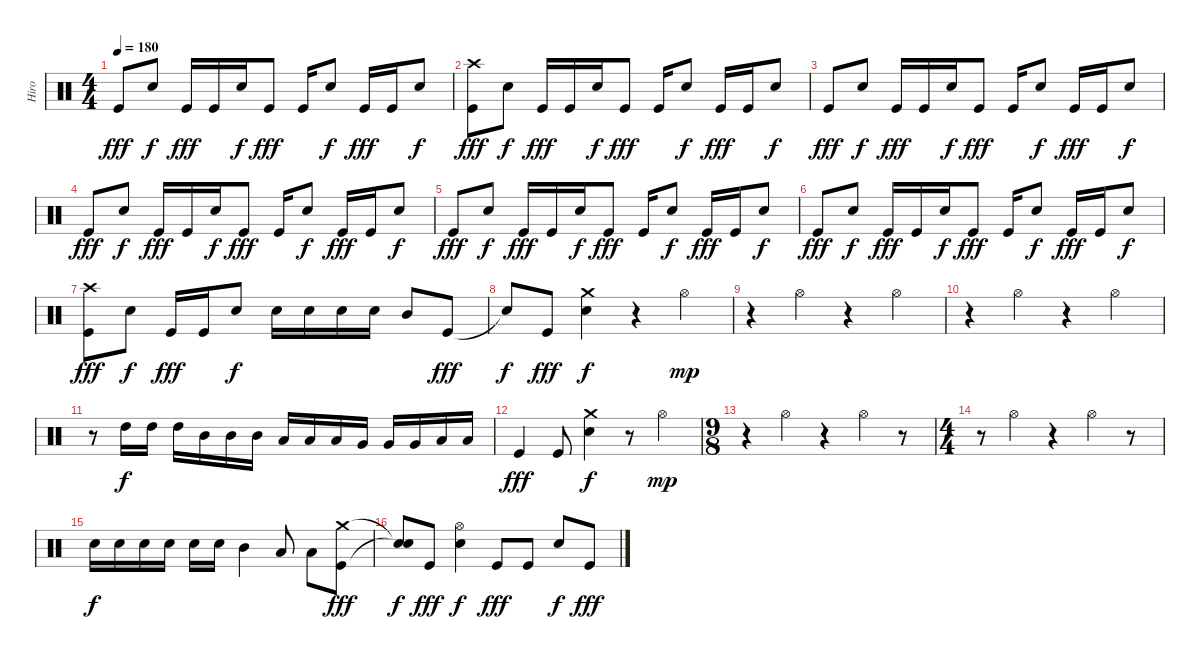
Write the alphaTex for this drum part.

\track ("Hiro" "Hiro") {instrument percussion}
\staff {score}
\articulation defaults
\ts (4 4)
\tempo 180
\clef neutral
\ks c "Kick (hit)".8{dy fff} "Electric Snare (hit)".8{dy f} "Kick (hit)".16{dy fff} "Kick (hit)".16 "Electric Snare (hit)".16{dy f} "Kick (hit)".8{dy fff} "Kick (hit)".16 "Electric Snare (hit)".8{dy f} "Kick (hit)".16{dy fff} "Kick (hit)".16 "Electric Snare (hit)".8{dy f}
|
("Crash high (hit)" "Kick (hit)").8{dy fff} "Electric Snare (hit)".8{dy f} "Kick (hit)".16{dy fff} "Kick (hit)".16 "Electric Snare (hit)".16{dy f} "Kick (hit)".8{dy fff} "Kick (hit)".16 "Electric Snare (hit)".8{dy f} "Kick (hit)".16{dy fff} "Kick (hit)".16 "Electric Snare (hit)".8{dy f} |
"Kick (hit)".8{dy fff} "Electric Snare (hit)".8{dy f} "Kick (hit)".16{dy fff} "Kick (hit)".16 "Electric Snare (hit)".16{dy f} "Kick (hit)".8{dy fff} "Kick (hit)".16 "Electric Snare (hit)".8{dy f} "Kick (hit)".16{dy fff} "Kick (hit)".16 "Electric Snare (hit)".8{dy f} |
"Kick (hit)".8{dy fff} "Electric Snare (hit)".8{dy f} "Kick (hit)".16{dy fff} "Kick (hit)".16 "Electric Snare (hit)".16{dy f} "Kick (hit)".8{dy fff} "Kick (hit)".16 "Electric Snare (hit)".8{dy f} "Kick (hit)".16{dy fff} "Kick (hit)".16 "Electric Snare (hit)".8{dy f} |
"Kick (hit)".8{dy fff} "Electric Snare (hit)".8{dy f} "Kick (hit)".16{dy fff} "Kick (hit)".16 "Electric Snare (hit)".16{dy f} "Kick (hit)".8{dy fff} "Kick (hit)".16 "Electric Snare (hit)".8{dy f} "Kick (hit)".16{dy fff} "Kick (hit)".16 "Electric Snare (hit)".8{dy f} |
"Kick (hit)".8{dy fff} "Electric Snare (hit)".8{dy f} "Kick (hit)".16{dy fff} "Kick (hit)".16 "Electric Snare (hit)".16{dy f} "Kick (hit)".8{dy fff} "Kick (hit)".16 "Electric Snare (hit)".8{dy f} "Kick (hit)".16{dy fff} "Kick (hit)".16 "Electric Snare (hit)".8{dy f} |
("Crash high (hit)" "Kick (hit)").8{dy fff} "Electric Snare (hit)".8{dy f} "Kick (hit)".16{dy fff} "Kick (hit)".16 "Electric Snare (hit)".8{dy f} "Electric Snare (hit)".16 "Electric Snare (hit)".16 "Electric Snare (hit)".16 "Electric Snare (hit)".16 "Mid Tom (hit)".8 "Kick (hit)".8{dy fff} |
"Snare (hit)"{t}.8{dy f} "Kick (hit)".8{dy fff} ("Electric Snare (hit)" "Crash medium (hit)").4{dy f} r.4 "Hi-Hat (open)".4{dy mp} |
r.4 "Hi-Hat (open)".4 r.4 "Hi-Hat (open)".4 |
r.4 "Hi-Hat (open)".4 r.4 "Hi-Hat (open)".4 |
r.8 "High Tom (hit)".16{dy f} "High Tom (hit)".16 "High Tom (hit)".16 "Mid Tom (hit)".16 "Mid Tom (hit)".16 "Mid Tom (hit)".16 "Low Tom (hit)".16 "Low Tom (hit)".16 "Low Tom (hit)".16 "Very Low Tom (hit)".16 "Very Low Tom (hit)".16 "Very Low Tom (hit)".16 "Low Floor Tom (hit)".16 "Low Floor Tom (hit)".16 |
"Kick (hit)".4{dy fff} "Kick (hit)".8 ("Electric Snare (hit)" "Crash medium (hit)").4{dy f} r.8 "Hi-Hat (open)".4{dy mp} |
\ts (9 8)
r.4 "Hi-Hat (open)".4 r.4 "Hi-Hat (open)".4 r.8 |
\ts (4 4)
r.8 "Hi-Hat (open)".4 r.4 "Hi-Hat (open)".4 r.8 |
"Electric Snare (hit)".16{dy f} "Electric Snare (hit)".16 "Electric Snare (hit)".16 "Electric Snare (hit)".16 "Electric Snare (hit)".16 "Electric Snare (hit)".16 "Mid Tom (hit)".4 "Low Tom (hit)".8 "Low Floor Tom (hit)".8 ("Crash medium (hit)" "Kick (hit)").8{dy fff} |
("Snare (hit)"{t} "Snare (hit)"{t}).8{dy f} "Kick (hit)".8{dy fff} ("Electric Snare (hit)" "Hi-Hat (open)").4{dy f} "Kick (hit)".8{dy fff} "Kick (hit)".8 "Electric Snare (hit)".8{dy f} "Kick (hit)".8{dy fff}
